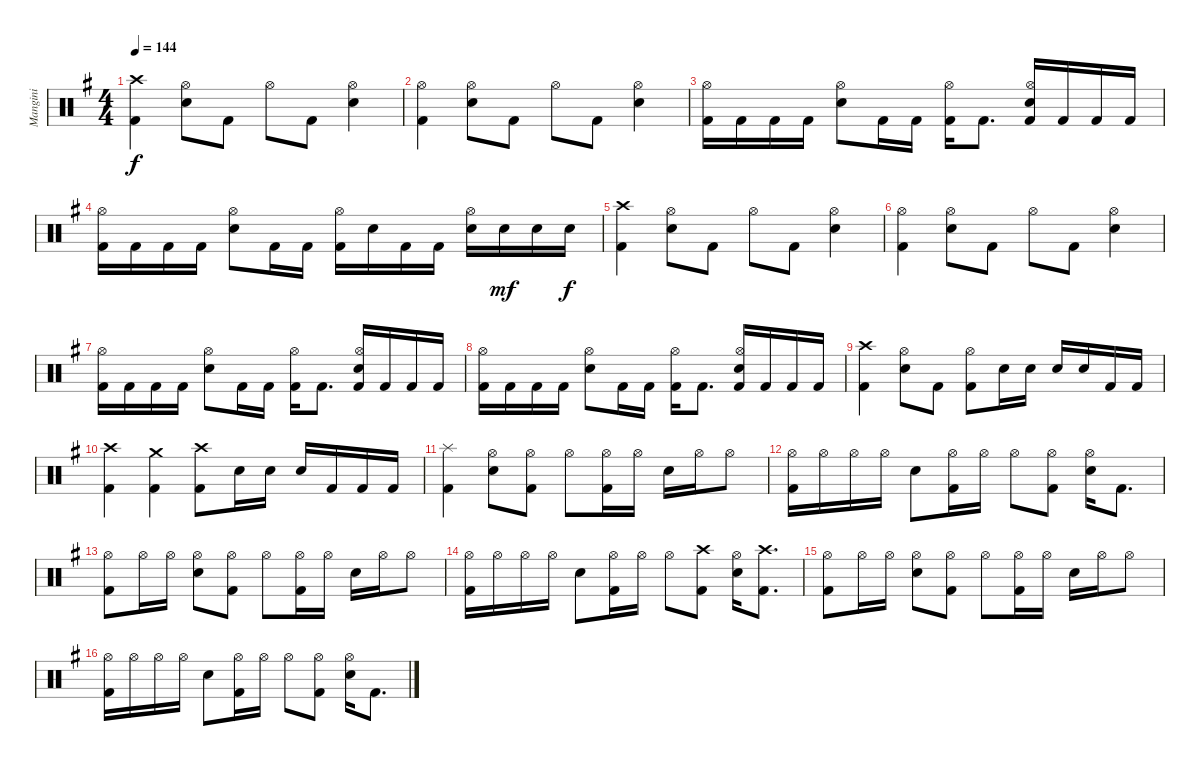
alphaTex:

\track ("Mangini" "Mangini") {instrument percussion}
\staff {score}
\articulation defaults
\ts (4 4)
\tempo 144
\clef neutral
\ks eminor
("Crash high (hit)" "Kick (hit) 2").4{dy f} ("Hi-Hat (open)" "Snare (hit) 2").8 "Kick (hit) 2".8 "Hi-Hat (open)".8 "Kick (hit) 2".8 ("Hi-Hat (open)" "Snare (hit) 2").4 |
("Hi-Hat (open)" "Kick (hit) 2").4 ("Hi-Hat (open)" "Snare (hit) 2").8 "Kick (hit) 2".8 "Hi-Hat (open)".8 "Kick (hit) 2".8 ("Hi-Hat (open)" "Snare (hit) 2").4 |
("Hi-Hat (open)" "Kick (hit) 2").16 "Kick (hit) 2".16 "Kick (hit) 2".16 "Kick (hit) 2".16 ("Hi-Hat (open)" "Snare (hit) 2").8 "Kick (hit) 2".16 "Kick (hit) 2".16 ("Hi-Hat (open)" "Kick (hit) 2").16 "Kick (hit) 2".8{d} ("Hi-Hat (open)" "Snare (hit) 2" "Kick (hit) 2").16 "Kick (hit) 2".16 "Kick (hit) 2".16 "Kick (hit) 2".16 |
("Hi-Hat (open)" "Kick (hit) 2").16 "Kick (hit) 2".16 "Kick (hit) 2".16 "Kick (hit) 2".16 ("Hi-Hat (open)" "Snare (hit) 2").8 "Kick (hit) 2".16 "Kick (hit) 2".16 ("Hi-Hat (open)" "Kick (hit) 2").16 "Snare (hit) 2".16 "Kick (hit) 2".16 "Kick (hit) 2".16 ("Hi-Hat (open)" "Snare (hit) 2").16 "Snare (hit) 2".16{dy mf} "Snare (hit) 2".16 "Snare (hit) 2".16{dy f} |
("Crash high (hit)" "Kick (hit) 2").4 ("Hi-Hat (open)" "Snare (hit) 2").8 "Kick (hit) 2".8 "Hi-Hat (open)".8 "Kick (hit) 2".8 ("Hi-Hat (open)" "Snare (hit) 2").4 |
("Hi-Hat (open)" "Kick (hit) 2").4 ("Hi-Hat (open)" "Snare (hit) 2").8 "Kick (hit) 2".8 "Hi-Hat (open)".8 "Kick (hit) 2".8 ("Hi-Hat (open)" "Snare (hit) 2").4 |
("Hi-Hat (open)" "Kick (hit) 2").16 "Kick (hit) 2".16 "Kick (hit) 2".16 "Kick (hit) 2".16 ("Hi-Hat (open)" "Snare (hit) 2").8 "Kick (hit) 2".16 "Kick (hit) 2".16 ("Hi-Hat (open)" "Kick (hit) 2").16 "Kick (hit) 2".8{d} ("Hi-Hat (open)" "Snare (hit) 2" "Kick (hit) 2").16 "Kick (hit) 2".16 "Kick (hit) 2".16 "Kick (hit) 2".16 |
("Hi-Hat (open)" "Kick (hit) 2").16 "Kick (hit) 2".16 "Kick (hit) 2".16 "Kick (hit) 2".16 ("Hi-Hat (open)" "Snare (hit) 2").8 "Kick (hit) 2".16 "Kick (hit) 2".16 ("Hi-Hat (open)" "Kick (hit) 2").16 "Kick (hit) 2".8{d} ("Hi-Hat (open)" "Snare (hit) 2" "Kick (hit) 2").16 "Kick (hit) 2".16 "Kick (hit) 2".16 "Kick (hit) 2".16 |
("Crash high (hit)" "Kick (hit) 2").4 ("Hi-Hat (open)" "Snare (hit) 2").8 "Kick (hit) 2".8 ("Hi-Hat (open)" "Kick (hit) 2").8 "Snare (hit) 2".16 "Snare (hit) 2".16 "Snare (hit) 2".16 "Snare (hit) 2".16 "Kick (hit) 2".16 "Kick (hit) 2".16 |
("Crash high (hit)" "Kick (hit) 2").4 ("Crash medium (hit)" "Kick (hit) 2").4 ("Crash high (hit)" "Kick (hit) 2").8 "Snare (hit) 2".16 "Snare (hit) 2".16 "Snare (hit) 2".16 "Kick (hit) 2".16 "Kick (hit) 2".16 "Kick (hit) 2".16 |
("Splash (hit)" "Kick (hit) 2").4 ("Hi-Hat (open)" "Snare (hit) 2").8 ("Hi-Hat (open)" "Kick (hit) 2").8 "Hi-Hat (open)".8 ("Hi-Hat (open)" "Kick (hit) 2").16 "Hi-Hat (open)".16 "Snare (hit) 2".16 "Hi-Hat (open)".16 "Hi-Hat (open)".8 |
("Hi-Hat (open)" "Kick (hit) 2").16 "Hi-Hat (open)".16 "Hi-Hat (open)".16 "Hi-Hat (open)".16 "Snare (hit) 2".8 ("Hi-Hat (open)" "Kick (hit) 2").16 "Hi-Hat (open)".16 "Hi-Hat (open)".8 ("Hi-Hat (open)" "Kick (hit) 2").8 ("Hi-Hat (open)" "Snare (hit) 2").16 "Kick (hit) 2".8{d} |
("Hi-Hat (open)" "Kick (hit) 2").8 "Hi-Hat (open)".16 "Hi-Hat (open)".16 ("Hi-Hat (open)" "Snare (hit) 2").8 ("Hi-Hat (open)" "Kick (hit) 2").8 "Hi-Hat (open)".8 ("Hi-Hat (open)" "Kick (hit) 2").16 "Hi-Hat (open)".16 "Snare (hit) 2".16 "Hi-Hat (open)".16 "Hi-Hat (open)".8 |
("Hi-Hat (open)" "Kick (hit) 2").16 "Hi-Hat (open)".16 "Hi-Hat (open)".16 "Hi-Hat (open)".16 "Snare (hit) 2".8 ("Hi-Hat (open)" "Kick (hit) 2").16 "Hi-Hat (open)".16 "Hi-Hat (open)".8 ("Crash high (hit)" "Kick (hit) 2").8 ("Hi-Hat (open)" "Snare (hit) 2").16 ("Crash high (hit)" "Kick (hit) 2").8{d} |
("Hi-Hat (open)" "Kick (hit) 2").8 "Hi-Hat (open)".16 "Hi-Hat (open)".16 ("Hi-Hat (open)" "Snare (hit) 2").8 ("Hi-Hat (open)" "Kick (hit) 2").8 "Hi-Hat (open)".8 ("Hi-Hat (open)" "Kick (hit) 2").16 "Hi-Hat (open)".16 "Snare (hit) 2".16 "Hi-Hat (open)".16 "Hi-Hat (open)".8 |
("Hi-Hat (open)" "Kick (hit) 2").16 "Hi-Hat (open)".16 "Hi-Hat (open)".16 "Hi-Hat (open)".16 "Snare (hit) 2".8 ("Hi-Hat (open)" "Kick (hit) 2").16 "Hi-Hat (open)".16 "Hi-Hat (open)".8 ("Hi-Hat (open)" "Kick (hit) 2").8 ("Hi-Hat (open)" "Snare (hit) 2").16 "Kick (hit) 2".8{d}
